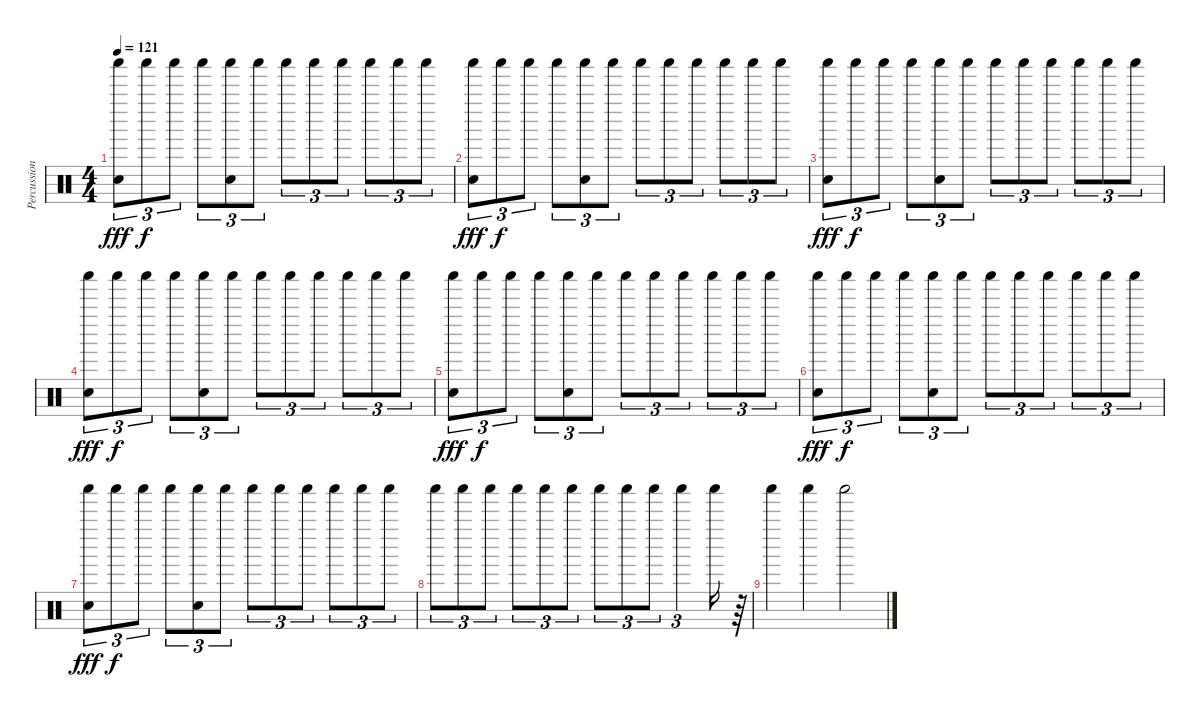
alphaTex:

\track ("Percussions" "Percussion") {instrument percussion}
\staff {score}
\articulation defaults
\ts (4 4)
\tempo 121
\clef neutral
\ks c
("Shaker (hit)" "Electric Snare (hit)").8{tu (3 2) dy fff} "Shaker (hit)".8{tu (3 2) dy f} "Shaker (hit)".8{tu (3 2)} "Shaker (hit)".8{tu (3 2)} ("Shaker (hit)" "Electric Snare (hit)").8{tu (3 2)} "Shaker (hit)".8{tu (3 2)} "Shaker (hit)".8{tu (3 2)} "Shaker (hit)".8{tu (3 2)} "Shaker (hit)".8{tu (3 2)} "Shaker (hit)".8{tu (3 2)} "Shaker (hit)".8{tu (3 2)} "Shaker (hit)".8{tu (3 2)} |
("Shaker (hit)" "Electric Snare (hit)").8{tu (3 2) dy fff} "Shaker (hit)".8{tu (3 2) dy f} "Shaker (hit)".8{tu (3 2)} "Shaker (hit)".8{tu (3 2)} ("Shaker (hit)" "Electric Snare (hit)").8{tu (3 2)} "Shaker (hit)".8{tu (3 2)} "Shaker (hit)".8{tu (3 2)} "Shaker (hit)".8{tu (3 2)} "Shaker (hit)".8{tu (3 2)} "Shaker (hit)".8{tu (3 2)} "Shaker (hit)".8{tu (3 2)} "Shaker (hit)".8{tu (3 2)} |
("Shaker (hit)" "Electric Snare (hit)").8{tu (3 2) dy fff} "Shaker (hit)".8{tu (3 2) dy f} "Shaker (hit)".8{tu (3 2)} "Shaker (hit)".8{tu (3 2)} ("Shaker (hit)" "Electric Snare (hit)").8{tu (3 2)} "Shaker (hit)".8{tu (3 2)} "Shaker (hit)".8{tu (3 2)} "Shaker (hit)".8{tu (3 2)} "Shaker (hit)".8{tu (3 2)} "Shaker (hit)".8{tu (3 2)} "Shaker (hit)".8{tu (3 2)} "Shaker (hit)".8{tu (3 2)} |
("Shaker (hit)" "Electric Snare (hit)").8{tu (3 2) dy fff} "Shaker (hit)".8{tu (3 2) dy f} "Shaker (hit)".8{tu (3 2)} "Shaker (hit)".8{tu (3 2)} ("Shaker (hit)" "Electric Snare (hit)").8{tu (3 2)} "Shaker (hit)".8{tu (3 2)} "Shaker (hit)".8{tu (3 2)} "Shaker (hit)".8{tu (3 2)} "Shaker (hit)".8{tu (3 2)} "Shaker (hit)".8{tu (3 2)} "Shaker (hit)".8{tu (3 2)} "Shaker (hit)".8{tu (3 2)} |
("Shaker (hit)" "Electric Snare (hit)").8{tu (3 2) dy fff} "Shaker (hit)".8{tu (3 2) dy f} "Shaker (hit)".8{tu (3 2)} "Shaker (hit)".8{tu (3 2)} ("Shaker (hit)" "Electric Snare (hit)").8{tu (3 2)} "Shaker (hit)".8{tu (3 2)} "Shaker (hit)".8{tu (3 2)} "Shaker (hit)".8{tu (3 2)} "Shaker (hit)".8{tu (3 2)} "Shaker (hit)".8{tu (3 2)} "Shaker (hit)".8{tu (3 2)} "Shaker (hit)".8{tu (3 2)} |
("Shaker (hit)" "Electric Snare (hit)").8{tu (3 2) dy fff} "Shaker (hit)".8{tu (3 2) dy f} "Shaker (hit)".8{tu (3 2)} "Shaker (hit)".8{tu (3 2)} ("Shaker (hit)" "Electric Snare (hit)").8{tu (3 2)} "Shaker (hit)".8{tu (3 2)} "Shaker (hit)".8{tu (3 2)} "Shaker (hit)".8{tu (3 2)} "Shaker (hit)".8{tu (3 2)} "Shaker (hit)".8{tu (3 2)} "Shaker (hit)".8{tu (3 2)} "Shaker (hit)".8{tu (3 2)} |
("Shaker (hit)" "Electric Snare (hit)").8{tu (3 2) dy fff} "Shaker (hit)".8{tu (3 2) dy f} "Shaker (hit)".8{tu (3 2)} "Shaker (hit)".8{tu (3 2)} ("Shaker (hit)" "Electric Snare (hit)").8{tu (3 2)} "Shaker (hit)".8{tu (3 2)} "Shaker (hit)".8{tu (3 2)} "Shaker (hit)".8{tu (3 2)} "Shaker (hit)".8{tu (3 2)} "Shaker (hit)".8{tu (3 2)} "Shaker (hit)".8{tu (3 2)} "Shaker (hit)".8{tu (3 2)} |
"Shaker (hit)".8{tu (3 2)} "Shaker (hit)".8{tu (3 2)} "Shaker (hit)".8{tu (3 2)} "Shaker (hit)".8{tu (3 2)} "Shaker (hit)".8{tu (3 2)} "Shaker (hit)".8{tu (3 2)} "Shaker (hit)".8{tu (3 2)} "Shaker (hit)".8{tu (3 2)} "Shaker (hit)".8{tu (3 2)} "Shaker (hit)".4{tu (3 2)} "Shaker (hit)".16 r.64 |
"Shaker (hit)".4 "Shaker (hit)".4 "Shaker (hit)".2
